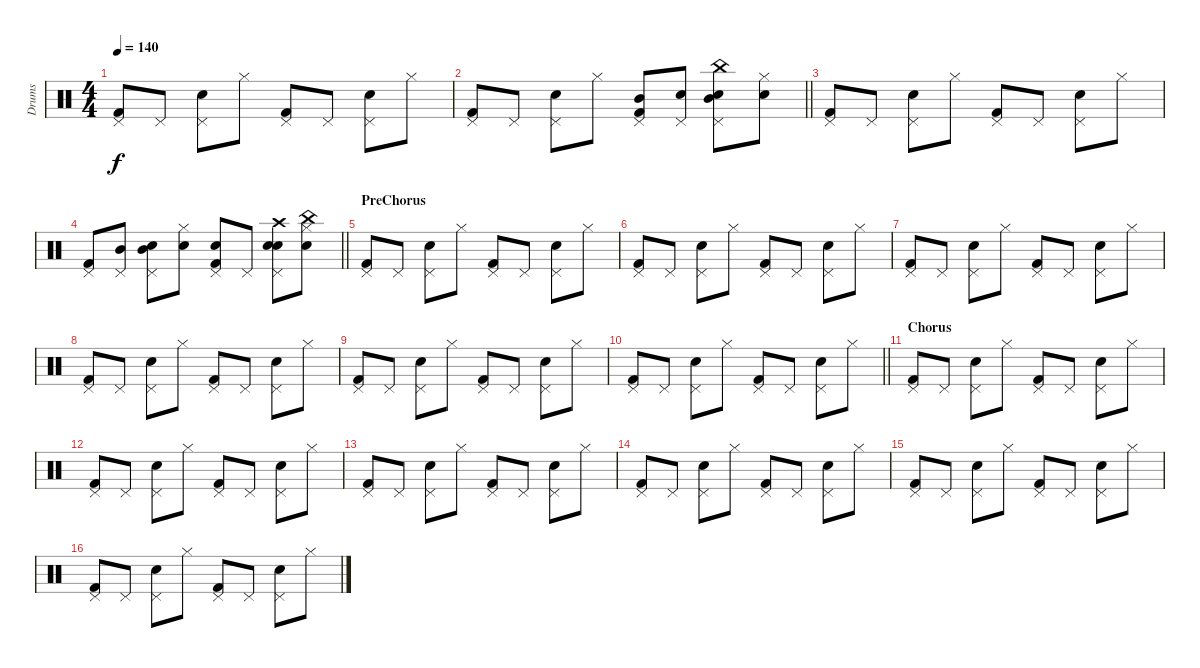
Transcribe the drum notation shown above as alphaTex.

\track ("Drums" "Drums") {instrument percussion}
\staff {score}
\articulation defaults
\ts (4 4)
\tempo 140
\clef neutral
\ks c
("Kick (hit) 2" "Pedal Hi-Hat (hit)").8{dy f} "Pedal Hi-Hat (hit)".8 ("Snare (hit) 2" "Pedal Hi-Hat (hit)").8 "Hi-Hat (closed)".8 ("Kick (hit) 2" "Pedal Hi-Hat (hit)").8 "Pedal Hi-Hat (hit)".8 ("Snare (hit) 2" "Pedal Hi-Hat (hit)").8 "Hi-Hat (closed)".8 |
\barLineRight lightlight
("Kick (hit) 2" "Pedal Hi-Hat (hit)").8 "Pedal Hi-Hat (hit)".8 ("Snare (hit) 2" "Pedal Hi-Hat (hit)").8 "Hi-Hat (closed)".8 ("Kick (hit) 2" "Mid Tom (hit)" "Pedal Hi-Hat (hit)").8 ("Hand Clap (hit)" "Pedal Hi-Hat (hit)").8 ("Snare (hit) 2" "China (hit)" "Mid Tom (hit)" "Pedal Hi-Hat (hit)").8 ("Hand Clap (hit)" "Hi-Hat (closed)").8 |
("Kick (hit) 2" "Pedal Hi-Hat (hit)").8 "Pedal Hi-Hat (hit)".8 ("Snare (hit) 2" "Pedal Hi-Hat (hit)").8 "Hi-Hat (closed)".8 ("Kick (hit) 2" "Pedal Hi-Hat (hit)").8 "Pedal Hi-Hat (hit)".8 ("Snare (hit) 2" "Pedal Hi-Hat (hit)").8 "Hi-Hat (closed)".8 |
\barLineRight lightlight
("Kick (hit) 2" "Pedal Hi-Hat (hit)").8 ("Mid Tom (hit)" "Pedal Hi-Hat (hit)").8 ("Snare (hit) 2" "Mid Tom (hit)" "Pedal Hi-Hat (hit)").8 ("Snare (hit) 2" "Hi-Hat (closed)").8 ("Kick (hit) 2" "Snare (hit) 2" "Pedal Hi-Hat (hit)").8 "Pedal Hi-Hat (hit)".8 ("Snare (hit) 2" "Snare (hit) 2" "Pedal Hi-Hat (hit)" "Crash high (hit)").8 ("Snare (hit) 2" "Hi-Hat (closed)" "China (hit)").8 |
\section ("" "PreChorus")
("Kick (hit) 2" "Pedal Hi-Hat (hit)").8 "Pedal Hi-Hat (hit)".8 ("Snare (hit) 2" "Pedal Hi-Hat (hit)").8 "Hi-Hat (closed)".8 ("Kick (hit) 2" "Pedal Hi-Hat (hit)").8 "Pedal Hi-Hat (hit)".8 ("Snare (hit) 2" "Pedal Hi-Hat (hit)").8 "Hi-Hat (closed)".8 |
("Kick (hit) 2" "Pedal Hi-Hat (hit)").8 "Pedal Hi-Hat (hit)".8 ("Snare (hit) 2" "Pedal Hi-Hat (hit)").8 "Hi-Hat (closed)".8 ("Kick (hit) 2" "Pedal Hi-Hat (hit)").8 "Pedal Hi-Hat (hit)".8 ("Snare (hit) 2" "Pedal Hi-Hat (hit)").8 "Hi-Hat (closed)".8 |
("Kick (hit) 2" "Pedal Hi-Hat (hit)").8 "Pedal Hi-Hat (hit)".8 ("Snare (hit) 2" "Pedal Hi-Hat (hit)").8 "Hi-Hat (closed)".8 ("Kick (hit) 2" "Pedal Hi-Hat (hit)").8 "Pedal Hi-Hat (hit)".8 ("Snare (hit) 2" "Pedal Hi-Hat (hit)").8 "Hi-Hat (closed)".8 |
("Kick (hit) 2" "Pedal Hi-Hat (hit)").8 "Pedal Hi-Hat (hit)".8 ("Snare (hit) 2" "Pedal Hi-Hat (hit)").8 "Hi-Hat (closed)".8 ("Kick (hit) 2" "Pedal Hi-Hat (hit)").8 "Pedal Hi-Hat (hit)".8 ("Snare (hit) 2" "Pedal Hi-Hat (hit)").8 "Hi-Hat (closed)".8 |
("Kick (hit) 2" "Pedal Hi-Hat (hit)").8 "Pedal Hi-Hat (hit)".8 ("Snare (hit) 2" "Pedal Hi-Hat (hit)").8 "Hi-Hat (closed)".8 ("Kick (hit) 2" "Pedal Hi-Hat (hit)").8 "Pedal Hi-Hat (hit)".8 ("Snare (hit) 2" "Pedal Hi-Hat (hit)").8 "Hi-Hat (closed)".8 |
\barLineRight lightlight
("Kick (hit) 2" "Pedal Hi-Hat (hit)").8 "Pedal Hi-Hat (hit)".8 ("Snare (hit) 2" "Pedal Hi-Hat (hit)").8 "Hi-Hat (closed)".8 ("Kick (hit) 2" "Pedal Hi-Hat (hit)").8 "Pedal Hi-Hat (hit)".8 ("Snare (hit) 2" "Pedal Hi-Hat (hit)").8 "Hi-Hat (closed)".8 |
\section ("" "Chorus")
("Kick (hit) 2" "Pedal Hi-Hat (hit)").8 "Pedal Hi-Hat (hit)".8 ("Snare (hit) 2" "Pedal Hi-Hat (hit)").8 "Hi-Hat (closed)".8 ("Kick (hit) 2" "Pedal Hi-Hat (hit)").8 "Pedal Hi-Hat (hit)".8 ("Snare (hit) 2" "Pedal Hi-Hat (hit)").8 "Hi-Hat (closed)".8 |
("Kick (hit) 2" "Pedal Hi-Hat (hit)").8 "Pedal Hi-Hat (hit)".8 ("Snare (hit) 2" "Pedal Hi-Hat (hit)").8 "Hi-Hat (closed)".8 ("Kick (hit) 2" "Pedal Hi-Hat (hit)").8 "Pedal Hi-Hat (hit)".8 ("Snare (hit) 2" "Pedal Hi-Hat (hit)").8 "Hi-Hat (closed)".8 |
("Kick (hit) 2" "Pedal Hi-Hat (hit)").8 "Pedal Hi-Hat (hit)".8 ("Snare (hit) 2" "Pedal Hi-Hat (hit)").8 "Hi-Hat (closed)".8 ("Kick (hit) 2" "Pedal Hi-Hat (hit)").8 "Pedal Hi-Hat (hit)".8 ("Snare (hit) 2" "Pedal Hi-Hat (hit)").8 "Hi-Hat (closed)".8 |
("Kick (hit) 2" "Pedal Hi-Hat (hit)").8 "Pedal Hi-Hat (hit)".8 ("Snare (hit) 2" "Pedal Hi-Hat (hit)").8 "Hi-Hat (closed)".8 ("Kick (hit) 2" "Pedal Hi-Hat (hit)").8 "Pedal Hi-Hat (hit)".8 ("Snare (hit) 2" "Pedal Hi-Hat (hit)").8 "Hi-Hat (closed)".8 |
("Kick (hit) 2" "Pedal Hi-Hat (hit)").8 "Pedal Hi-Hat (hit)".8 ("Snare (hit) 2" "Pedal Hi-Hat (hit)").8 "Hi-Hat (closed)".8 ("Kick (hit) 2" "Pedal Hi-Hat (hit)").8 "Pedal Hi-Hat (hit)".8 ("Snare (hit) 2" "Pedal Hi-Hat (hit)").8 "Hi-Hat (closed)".8 |
("Kick (hit) 2" "Pedal Hi-Hat (hit)").8 "Pedal Hi-Hat (hit)".8 ("Snare (hit) 2" "Pedal Hi-Hat (hit)").8 "Hi-Hat (closed)".8 ("Kick (hit) 2" "Pedal Hi-Hat (hit)").8 "Pedal Hi-Hat (hit)".8 ("Snare (hit) 2" "Pedal Hi-Hat (hit)").8 "Hi-Hat (closed)".8
